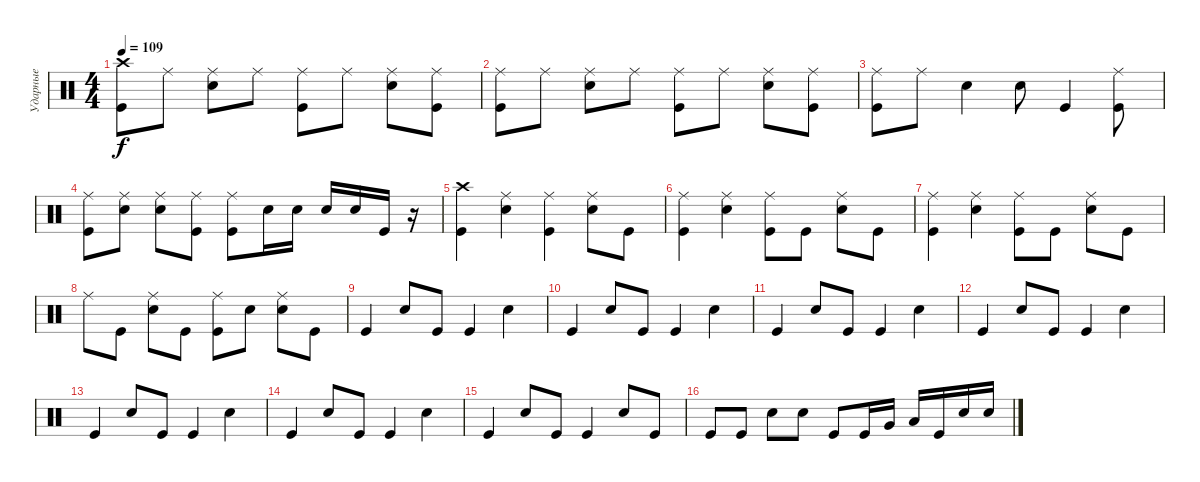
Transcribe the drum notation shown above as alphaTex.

\track ("Ударные" "Ударные") {instrument percussion}
\staff {score}
\articulation defaults
\ts (4 4)
\tempo 109
\clef neutral
\ks c
("Kick (hit)" "Crash high (hit)").8{dy f} "Ride (middle)".8 ("Snare (hit) 2" "Ride (middle)").8 "Ride (middle)".8 ("Kick (hit)" "Ride (middle)").8 "Ride (middle)".8 ("Snare (hit) 2" "Ride (middle)").8 ("Kick (hit)" "Ride (middle)").8 |
("Kick (hit)" "Ride (middle)").8 "Ride (middle)".8 ("Snare (hit) 2" "Ride (middle)").8 "Ride (middle)".8 ("Kick (hit)" "Ride (middle)").8 "Ride (middle)".8 ("Snare (hit) 2" "Ride (middle)").8 ("Kick (hit)" "Ride (middle)").8 |
("Kick (hit)" "Ride (middle)").8 "Ride (middle)".8 "Snare (hit) 2".4 "Snare (hit) 2".8 "Kick (hit)".4 ("Kick (hit)" "Ride (middle)").8 |
("Kick (hit)" "Ride (middle)").8 ("Snare (hit) 2" "Ride (middle)").8 ("Snare (hit) 2" "Ride (middle)").8 ("Kick (hit)" "Ride (middle)").8 ("Kick (hit)" "Ride (middle)").8 "Snare (hit) 2".16 "Snare (hit) 2".16 "Snare (hit) 2".16 "Snare (hit) 2".16 "Kick (hit)".16 r.16 |
("Kick (hit)" "Crash high (hit)").4 ("Snare (hit) 2" "Ride (middle)").4 ("Kick (hit)" "Ride (middle)").4 ("Snare (hit) 2" "Ride (middle)").8 "Kick (hit)".8 |
("Kick (hit)" "Ride (middle)").4 ("Snare (hit) 2" "Ride (middle)").4 ("Kick (hit)" "Ride (middle)").8 "Kick (hit)".8 ("Snare (hit) 2" "Ride (middle)").8 "Kick (hit)".8 |
("Kick (hit)" "Ride (middle)").4 ("Snare (hit) 2" "Ride (middle)").4 ("Kick (hit)" "Ride (middle)").8 "Kick (hit)".8 ("Snare (hit) 2" "Ride (middle)").8 "Kick (hit)".8 |
"Ride (middle)".8 "Kick (hit)".8 ("Snare (hit) 2" "Ride (middle)").8 "Kick (hit)".8 ("Kick (hit)" "Ride (middle)").8 "Snare (hit) 2".8 ("Snare (hit) 2" "Ride (middle)").8 "Kick (hit)".8 |
"Kick (hit)".4 "Snare (hit) 2".8 "Kick (hit)".8 "Kick (hit)".4 "Snare (hit) 2".4 |
"Kick (hit)".4 "Snare (hit) 2".8 "Kick (hit)".8 "Kick (hit)".4 "Snare (hit) 2".4 |
"Kick (hit)".4 "Snare (hit) 2".8 "Kick (hit)".8 "Kick (hit)".4 "Snare (hit) 2".4 |
"Kick (hit)".4 "Snare (hit) 2".8 "Kick (hit)".8 "Kick (hit)".4 "Snare (hit) 2".4 |
"Kick (hit)".4 "Snare (hit) 2".8 "Kick (hit)".8 "Kick (hit)".4 "Snare (hit) 2".4 |
"Kick (hit)".4 "Snare (hit) 2".8 "Kick (hit)".8 "Kick (hit)".4 "Snare (hit) 2".4 |
"Kick (hit)".4 "Snare (hit) 2".8 "Kick (hit)".8 "Kick (hit)".4 "Snare (hit) 2".8 "Kick (hit)".8 |
"Kick (hit)".8 "Kick (hit)".8 "Snare (hit) 2".8 "Snare (hit) 2".8 "Kick (hit)".8 "Kick (hit)".16 "Very Low Tom (hit)".16 "Low Floor Tom (hit)".16 "Kick (hit)".16 "Snare (hit) 2".16 "Snare (hit) 2".16
